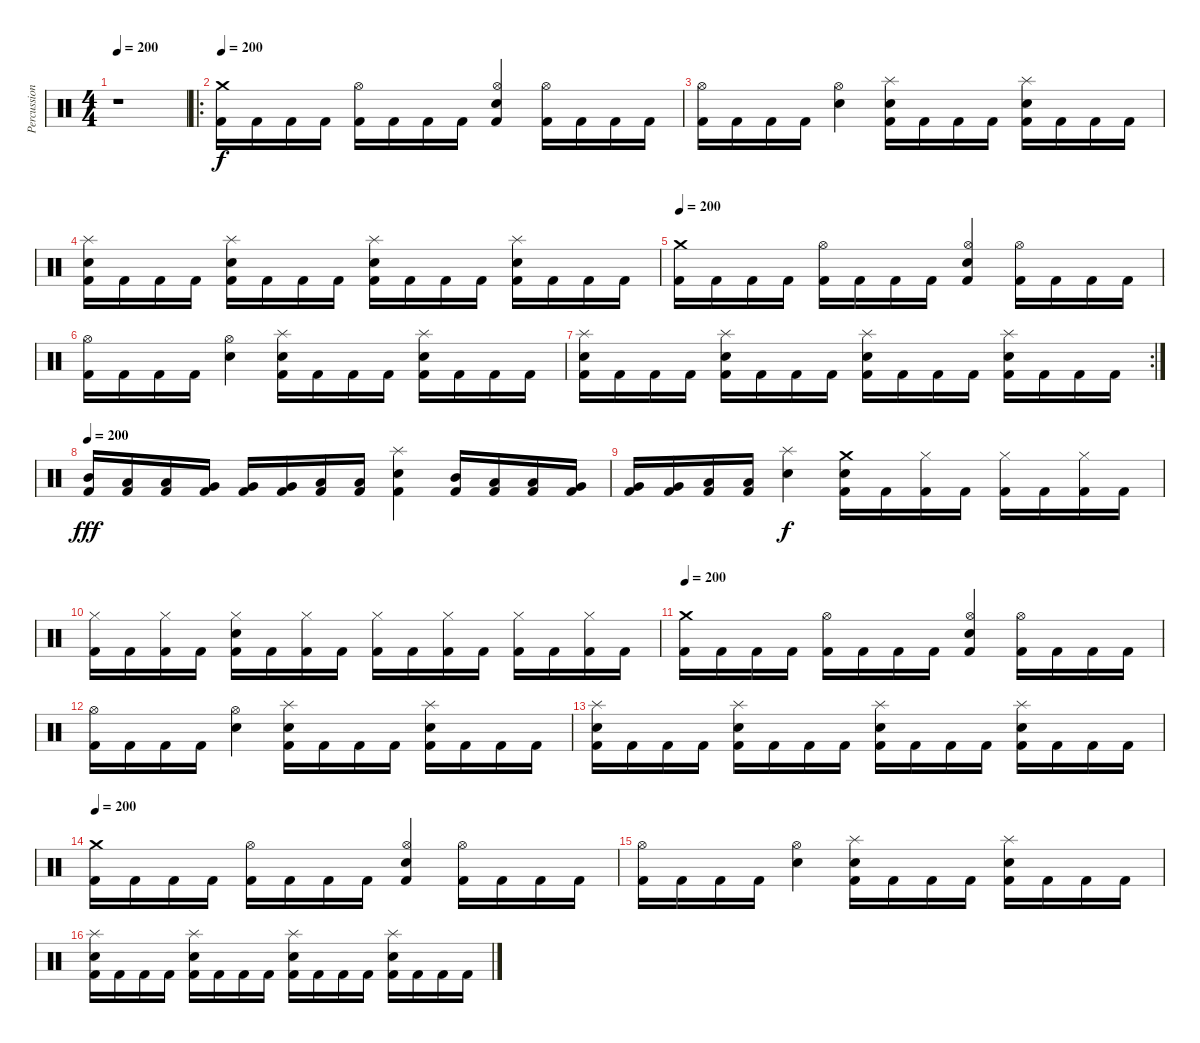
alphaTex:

\track ("Percussions" "Percussion") {instrument percussion}
\staff {score}
\articulation defaults
\ts (4 4)
\tempo 200
\clef neutral
\ks c
r.1{dy ppp} |
\ro
\tempo 200
("Crash medium (hit)" "Kick (hit) 2").16{dy f} "Kick (hit) 2".16 "Kick (hit) 2".16 "Kick (hit) 2".16 ("Hi-Hat (open)" "Kick (hit) 2").16 "Kick (hit) 2".16 "Kick (hit) 2".16 "Kick (hit) 2".16 ("Hi-Hat (open)" "Electric Snare (hit)" "Kick (hit) 2").4 ("Hi-Hat (open)" "Kick (hit) 2").16 "Kick (hit) 2".16 "Kick (hit) 2".16 "Kick (hit) 2".16 |
("Hi-Hat (open)" "Kick (hit) 2").16 "Kick (hit) 2".16 "Kick (hit) 2".16 "Kick (hit) 2".16 ("Hi-Hat (open)" "Electric Snare (hit)").4 ("Splash (hit)" "Electric Snare (hit)" "Kick (hit) 2").16 "Kick (hit) 2".16 "Kick (hit) 2".16 "Kick (hit) 2".16 ("Splash (hit)" "Electric Snare (hit)" "Kick (hit) 2").16 "Kick (hit) 2".16 "Kick (hit) 2".16 "Kick (hit) 2".16 |
("Splash (hit)" "Electric Snare (hit)" "Kick (hit) 2").16 "Kick (hit) 2".16 "Kick (hit) 2".16 "Kick (hit) 2".16 ("Splash (hit)" "Electric Snare (hit)" "Kick (hit) 2").16 "Kick (hit) 2".16 "Kick (hit) 2".16 "Kick (hit) 2".16 ("Splash (hit)" "Electric Snare (hit)" "Kick (hit) 2").16 "Kick (hit) 2".16 "Kick (hit) 2".16 "Kick (hit) 2".16 ("Splash (hit)" "Electric Snare (hit)" "Kick (hit) 2").16 "Kick (hit) 2".16 "Kick (hit) 2".16 "Kick (hit) 2".16 |
\tempo 200
("Crash medium (hit)" "Kick (hit) 2").16 "Kick (hit) 2".16 "Kick (hit) 2".16 "Kick (hit) 2".16 ("Hi-Hat (open)" "Kick (hit) 2").16 "Kick (hit) 2".16 "Kick (hit) 2".16 "Kick (hit) 2".16 ("Hi-Hat (open)" "Electric Snare (hit)" "Kick (hit) 2").4 ("Hi-Hat (open)" "Kick (hit) 2").16 "Kick (hit) 2".16 "Kick (hit) 2".16 "Kick (hit) 2".16 |
("Hi-Hat (open)" "Kick (hit) 2").16 "Kick (hit) 2".16 "Kick (hit) 2".16 "Kick (hit) 2".16 ("Hi-Hat (open)" "Electric Snare (hit)").4 ("Splash (hit)" "Electric Snare (hit)" "Kick (hit) 2").16 "Kick (hit) 2".16 "Kick (hit) 2".16 "Kick (hit) 2".16 ("Splash (hit)" "Electric Snare (hit)" "Kick (hit) 2").16 "Kick (hit) 2".16 "Kick (hit) 2".16 "Kick (hit) 2".16 |
\rc 2
("Splash (hit)" "Electric Snare (hit)" "Kick (hit) 2").16 "Kick (hit) 2".16 "Kick (hit) 2".16 "Kick (hit) 2".16 ("Splash (hit)" "Electric Snare (hit)" "Kick (hit) 2").16 "Kick (hit) 2".16 "Kick (hit) 2".16 "Kick (hit) 2".16 ("Splash (hit)" "Electric Snare (hit)" "Kick (hit) 2").16 "Kick (hit) 2".16 "Kick (hit) 2".16 "Kick (hit) 2".16 ("Splash (hit)" "Electric Snare (hit)" "Kick (hit) 2").16 "Kick (hit) 2".16 "Kick (hit) 2".16 "Kick (hit) 2".16 |
\tempo 200
("Mid Tom (hit)" "Kick (hit) 2").16{dy fff} ("Low Tom (hit)" "Kick (hit) 2").16 ("Low Tom (hit)" "Kick (hit) 2").16 ("Very Low Tom (hit)" "Kick (hit) 2").16 ("Very Low Tom (hit)" "Kick (hit) 2").16 ("Very Low Tom (hit)" "Kick (hit) 2").16 ("Low Floor Tom (hit)" "Kick (hit) 2").16 ("Low Floor Tom (hit)" "Kick (hit) 2").16 ("Splash (hit)" "Electric Snare (hit)" "Kick (hit) 2").4 ("Mid Tom (hit)" "Kick (hit) 2").16 ("Low Tom (hit)" "Kick (hit) 2").16 ("Low Tom (hit)" "Kick (hit) 2").16 ("Very Low Tom (hit)" "Kick (hit) 2").16 |
("Very Low Tom (hit)" "Kick (hit) 2").16 ("Very Low Tom (hit)" "Kick (hit) 2").16 ("Low Floor Tom (hit)" "Kick (hit) 2").16 ("Low Floor Tom (hit)" "Kick (hit) 2").16 ("Splash (hit)" "Electric Snare (hit)").4{dy f} ("Crash medium (hit)" "Electric Snare (hit)" "Kick (hit) 2").16 "Kick (hit) 2".16 ("Hi-Hat (closed)" "Kick (hit) 2").16 "Kick (hit) 2".16 ("Hi-Hat (closed)" "Kick (hit) 2").16 "Kick (hit) 2".16 ("Hi-Hat (closed)" "Kick (hit) 2").16 "Kick (hit) 2".16 |
("Hi-Hat (closed)" "Kick (hit) 2").16 "Kick (hit) 2".16 ("Hi-Hat (closed)" "Kick (hit) 2").16 "Kick (hit) 2".16 ("Hi-Hat (closed)" "Electric Snare (hit)" "Kick (hit) 2").16 "Kick (hit) 2".16 ("Hi-Hat (closed)" "Kick (hit) 2").16 "Kick (hit) 2".16 ("Hi-Hat (closed)" "Kick (hit) 2").16 "Kick (hit) 2".16 ("Hi-Hat (closed)" "Kick (hit) 2").16 "Kick (hit) 2".16 ("Hi-Hat (closed)" "Kick (hit) 2").16 "Kick (hit) 2".16 ("Hi-Hat (closed)" "Kick (hit) 2").16 "Kick (hit) 2".16 |
\tempo 200
("Crash medium (hit)" "Kick (hit) 2").16 "Kick (hit) 2".16 "Kick (hit) 2".16 "Kick (hit) 2".16 ("Hi-Hat (open)" "Kick (hit) 2").16 "Kick (hit) 2".16 "Kick (hit) 2".16 "Kick (hit) 2".16 ("Hi-Hat (open)" "Electric Snare (hit)" "Kick (hit) 2").4 ("Hi-Hat (open)" "Kick (hit) 2").16 "Kick (hit) 2".16 "Kick (hit) 2".16 "Kick (hit) 2".16 |
("Hi-Hat (open)" "Kick (hit) 2").16 "Kick (hit) 2".16 "Kick (hit) 2".16 "Kick (hit) 2".16 ("Hi-Hat (open)" "Electric Snare (hit)").4 ("Splash (hit)" "Electric Snare (hit)" "Kick (hit) 2").16 "Kick (hit) 2".16 "Kick (hit) 2".16 "Kick (hit) 2".16 ("Splash (hit)" "Electric Snare (hit)" "Kick (hit) 2").16 "Kick (hit) 2".16 "Kick (hit) 2".16 "Kick (hit) 2".16 |
("Splash (hit)" "Electric Snare (hit)" "Kick (hit) 2").16 "Kick (hit) 2".16 "Kick (hit) 2".16 "Kick (hit) 2".16 ("Splash (hit)" "Electric Snare (hit)" "Kick (hit) 2").16 "Kick (hit) 2".16 "Kick (hit) 2".16 "Kick (hit) 2".16 ("Splash (hit)" "Electric Snare (hit)" "Kick (hit) 2").16 "Kick (hit) 2".16 "Kick (hit) 2".16 "Kick (hit) 2".16 ("Splash (hit)" "Electric Snare (hit)" "Kick (hit) 2").16 "Kick (hit) 2".16 "Kick (hit) 2".16 "Kick (hit) 2".16 |
\tempo 200
("Crash medium (hit)" "Kick (hit) 2").16 "Kick (hit) 2".16 "Kick (hit) 2".16 "Kick (hit) 2".16 ("Hi-Hat (open)" "Kick (hit) 2").16 "Kick (hit) 2".16 "Kick (hit) 2".16 "Kick (hit) 2".16 ("Hi-Hat (open)" "Electric Snare (hit)" "Kick (hit) 2").4 ("Hi-Hat (open)" "Kick (hit) 2").16 "Kick (hit) 2".16 "Kick (hit) 2".16 "Kick (hit) 2".16 |
("Hi-Hat (open)" "Kick (hit) 2").16 "Kick (hit) 2".16 "Kick (hit) 2".16 "Kick (hit) 2".16 ("Hi-Hat (open)" "Electric Snare (hit)").4 ("Splash (hit)" "Electric Snare (hit)" "Kick (hit) 2").16 "Kick (hit) 2".16 "Kick (hit) 2".16 "Kick (hit) 2".16 ("Splash (hit)" "Electric Snare (hit)" "Kick (hit) 2").16 "Kick (hit) 2".16 "Kick (hit) 2".16 "Kick (hit) 2".16 |
("Splash (hit)" "Electric Snare (hit)" "Kick (hit) 2").16 "Kick (hit) 2".16 "Kick (hit) 2".16 "Kick (hit) 2".16 ("Splash (hit)" "Electric Snare (hit)" "Kick (hit) 2").16 "Kick (hit) 2".16 "Kick (hit) 2".16 "Kick (hit) 2".16 ("Splash (hit)" "Electric Snare (hit)" "Kick (hit) 2").16 "Kick (hit) 2".16 "Kick (hit) 2".16 "Kick (hit) 2".16 ("Splash (hit)" "Electric Snare (hit)" "Kick (hit) 2").16 "Kick (hit) 2".16 "Kick (hit) 2".16 "Kick (hit) 2".16
